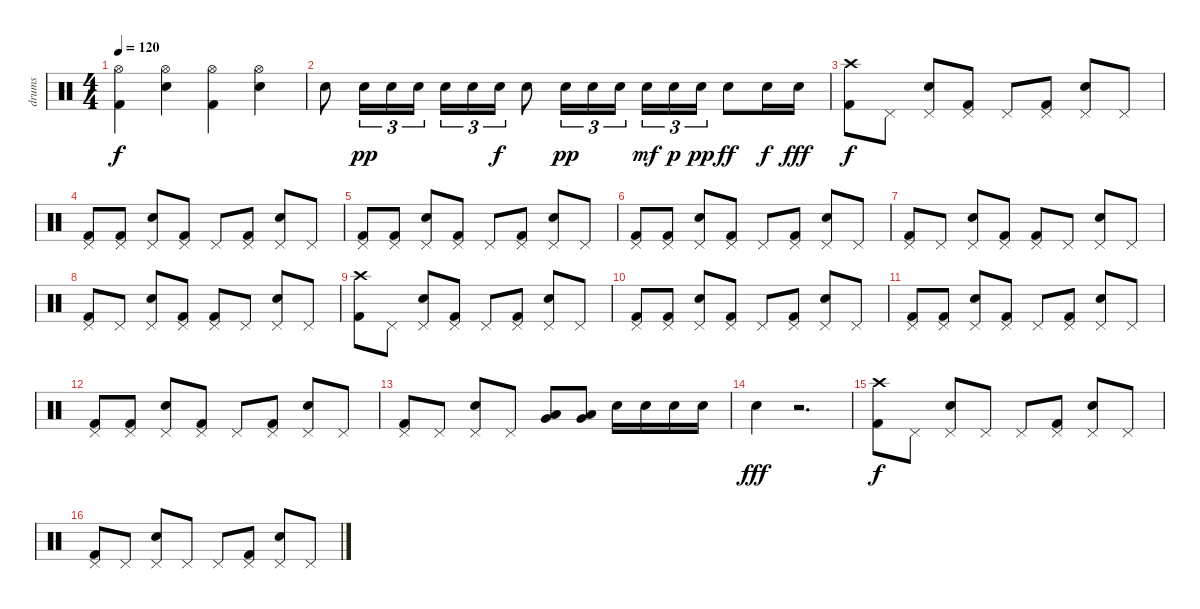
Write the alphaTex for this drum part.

\track ("drums" "drums") {instrument percussion}
\staff {score}
\articulation defaults
\ts (4 4)
\tempo 120
\clef neutral
\ks c
("Hi-Hat (open)" "Kick (hit) 2").4{dy f} ("Hi-Hat (open)" "Snare (hit) 2").4 ("Hi-Hat (open)" "Kick (hit) 2").4 ("Hi-Hat (open)" "Snare (hit) 2").4 |
"Electric Snare (hit)".8 "Electric Snare (hit)".16{tu (3 2) dy pp} "Electric Snare (hit)".16{tu (3 2)} "Electric Snare (hit)".16{tu (3 2)} "Electric Snare (hit)".16{tu (3 2)} "Electric Snare (hit)".16{tu (3 2)} "Electric Snare (hit)".16{tu (3 2) dy f} "Electric Snare (hit)".8 "Electric Snare (hit)".16{tu (3 2) dy pp} "Electric Snare (hit)".16{tu (3 2)} "Electric Snare (hit)".16{tu (3 2)} "Electric Snare (hit)".16{tu (3 2) dy mf} "Electric Snare (hit)".16{tu (3 2) dy p} "Electric Snare (hit)".16{tu (3 2) dy pp} "Electric Snare (hit)".8{dy ff} "Electric Snare (hit)".16{dy f} "Electric Snare (hit)".16{dy fff} |
("Crash high (hit)" "Kick (hit) 2").8{dy f} "Pedal Hi-Hat (hit)".8 ("Pedal Hi-Hat (hit)" "Electric Snare (hit)").8 ("Pedal Hi-Hat (hit)" "Kick (hit) 2").8 "Pedal Hi-Hat (hit)".8 ("Pedal Hi-Hat (hit)" "Kick (hit) 2").8 ("Pedal Hi-Hat (hit)" "Electric Snare (hit)").8 "Pedal Hi-Hat (hit)".8 |
("Pedal Hi-Hat (hit)" "Kick (hit) 2").8 ("Pedal Hi-Hat (hit)" "Kick (hit) 2").8 ("Pedal Hi-Hat (hit)" "Electric Snare (hit)").8 ("Pedal Hi-Hat (hit)" "Kick (hit) 2").8 "Pedal Hi-Hat (hit)".8 ("Pedal Hi-Hat (hit)" "Kick (hit) 2").8 ("Pedal Hi-Hat (hit)" "Electric Snare (hit)").8 "Pedal Hi-Hat (hit)".8 |
("Pedal Hi-Hat (hit)" "Kick (hit) 2").8 ("Pedal Hi-Hat (hit)" "Kick (hit) 2").8 ("Pedal Hi-Hat (hit)" "Electric Snare (hit)").8 ("Pedal Hi-Hat (hit)" "Kick (hit) 2").8 "Pedal Hi-Hat (hit)".8 ("Pedal Hi-Hat (hit)" "Kick (hit) 2").8 ("Pedal Hi-Hat (hit)" "Electric Snare (hit)").8 "Pedal Hi-Hat (hit)".8 |
("Pedal Hi-Hat (hit)" "Kick (hit) 2").8 ("Pedal Hi-Hat (hit)" "Kick (hit) 2").8 ("Pedal Hi-Hat (hit)" "Electric Snare (hit)").8 ("Pedal Hi-Hat (hit)" "Kick (hit) 2").8 "Pedal Hi-Hat (hit)".8 ("Pedal Hi-Hat (hit)" "Kick (hit) 2").8 ("Pedal Hi-Hat (hit)" "Electric Snare (hit)").8 "Pedal Hi-Hat (hit)".8 |
("Pedal Hi-Hat (hit)" "Kick (hit) 2").8 "Pedal Hi-Hat (hit)".8 ("Pedal Hi-Hat (hit)" "Electric Snare (hit)").8 ("Pedal Hi-Hat (hit)" "Kick (hit) 2").8 ("Pedal Hi-Hat (hit)" "Kick (hit) 2").8 "Pedal Hi-Hat (hit)".8 ("Pedal Hi-Hat (hit)" "Electric Snare (hit)").8 "Pedal Hi-Hat (hit)".8 |
("Pedal Hi-Hat (hit)" "Kick (hit) 2").8 "Pedal Hi-Hat (hit)".8 ("Pedal Hi-Hat (hit)" "Electric Snare (hit)").8 ("Pedal Hi-Hat (hit)" "Kick (hit) 2").8 ("Pedal Hi-Hat (hit)" "Kick (hit) 2").8 "Pedal Hi-Hat (hit)".8 ("Pedal Hi-Hat (hit)" "Electric Snare (hit)").8 "Pedal Hi-Hat (hit)".8 |
("Crash high (hit)" "Kick (hit) 2").8 "Pedal Hi-Hat (hit)".8 ("Pedal Hi-Hat (hit)" "Electric Snare (hit)").8 ("Pedal Hi-Hat (hit)" "Kick (hit) 2").8 "Pedal Hi-Hat (hit)".8 ("Pedal Hi-Hat (hit)" "Kick (hit) 2").8 ("Pedal Hi-Hat (hit)" "Electric Snare (hit)").8 "Pedal Hi-Hat (hit)".8 |
("Pedal Hi-Hat (hit)" "Kick (hit) 2").8 ("Pedal Hi-Hat (hit)" "Kick (hit) 2").8 ("Pedal Hi-Hat (hit)" "Electric Snare (hit)").8 ("Pedal Hi-Hat (hit)" "Kick (hit) 2").8 "Pedal Hi-Hat (hit)".8 ("Pedal Hi-Hat (hit)" "Kick (hit) 2").8 ("Pedal Hi-Hat (hit)" "Electric Snare (hit)").8 "Pedal Hi-Hat (hit)".8 |
("Pedal Hi-Hat (hit)" "Kick (hit) 2").8 ("Pedal Hi-Hat (hit)" "Kick (hit) 2").8 ("Pedal Hi-Hat (hit)" "Electric Snare (hit)").8 ("Pedal Hi-Hat (hit)" "Kick (hit) 2").8 "Pedal Hi-Hat (hit)".8 ("Pedal Hi-Hat (hit)" "Kick (hit) 2").8 ("Pedal Hi-Hat (hit)" "Electric Snare (hit)").8 "Pedal Hi-Hat (hit)".8 |
("Pedal Hi-Hat (hit)" "Kick (hit) 2").8 ("Pedal Hi-Hat (hit)" "Kick (hit) 2").8 ("Pedal Hi-Hat (hit)" "Electric Snare (hit)").8 ("Pedal Hi-Hat (hit)" "Kick (hit) 2").8 "Pedal Hi-Hat (hit)".8 ("Pedal Hi-Hat (hit)" "Kick (hit) 2").8 ("Pedal Hi-Hat (hit)" "Electric Snare (hit)").8 "Pedal Hi-Hat (hit)".8 |
("Pedal Hi-Hat (hit)" "Kick (hit) 2").8 "Pedal Hi-Hat (hit)".8 ("Pedal Hi-Hat (hit)" "Electric Snare (hit)").8 "Pedal Hi-Hat (hit)".8 ("Very Low Tom (hit)" "Low Tom (hit)").8 ("Very Low Tom (hit)" "Low Tom (hit)").8 "Electric Snare (hit)".16 "Electric Snare (hit)".16 "Electric Snare (hit)".16 "Electric Snare (hit)".16 |
"Electric Snare (hit)".4{dy fff} r.2{d} |
("Crash high (hit)" "Kick (hit) 2").8{dy f} "Pedal Hi-Hat (hit)".8 ("Pedal Hi-Hat (hit)" "Electric Snare (hit)").8 "Pedal Hi-Hat (hit)".8 "Pedal Hi-Hat (hit)".8 ("Pedal Hi-Hat (hit)" "Kick (hit) 2").8 ("Pedal Hi-Hat (hit)" "Electric Snare (hit)").8 "Pedal Hi-Hat (hit)".8 |
("Pedal Hi-Hat (hit)" "Kick (hit) 2").8 "Pedal Hi-Hat (hit)".8 ("Pedal Hi-Hat (hit)" "Electric Snare (hit)").8 "Pedal Hi-Hat (hit)".8 "Pedal Hi-Hat (hit)".8 ("Pedal Hi-Hat (hit)" "Kick (hit) 2").8 ("Pedal Hi-Hat (hit)" "Electric Snare (hit)").8 "Pedal Hi-Hat (hit)".8
